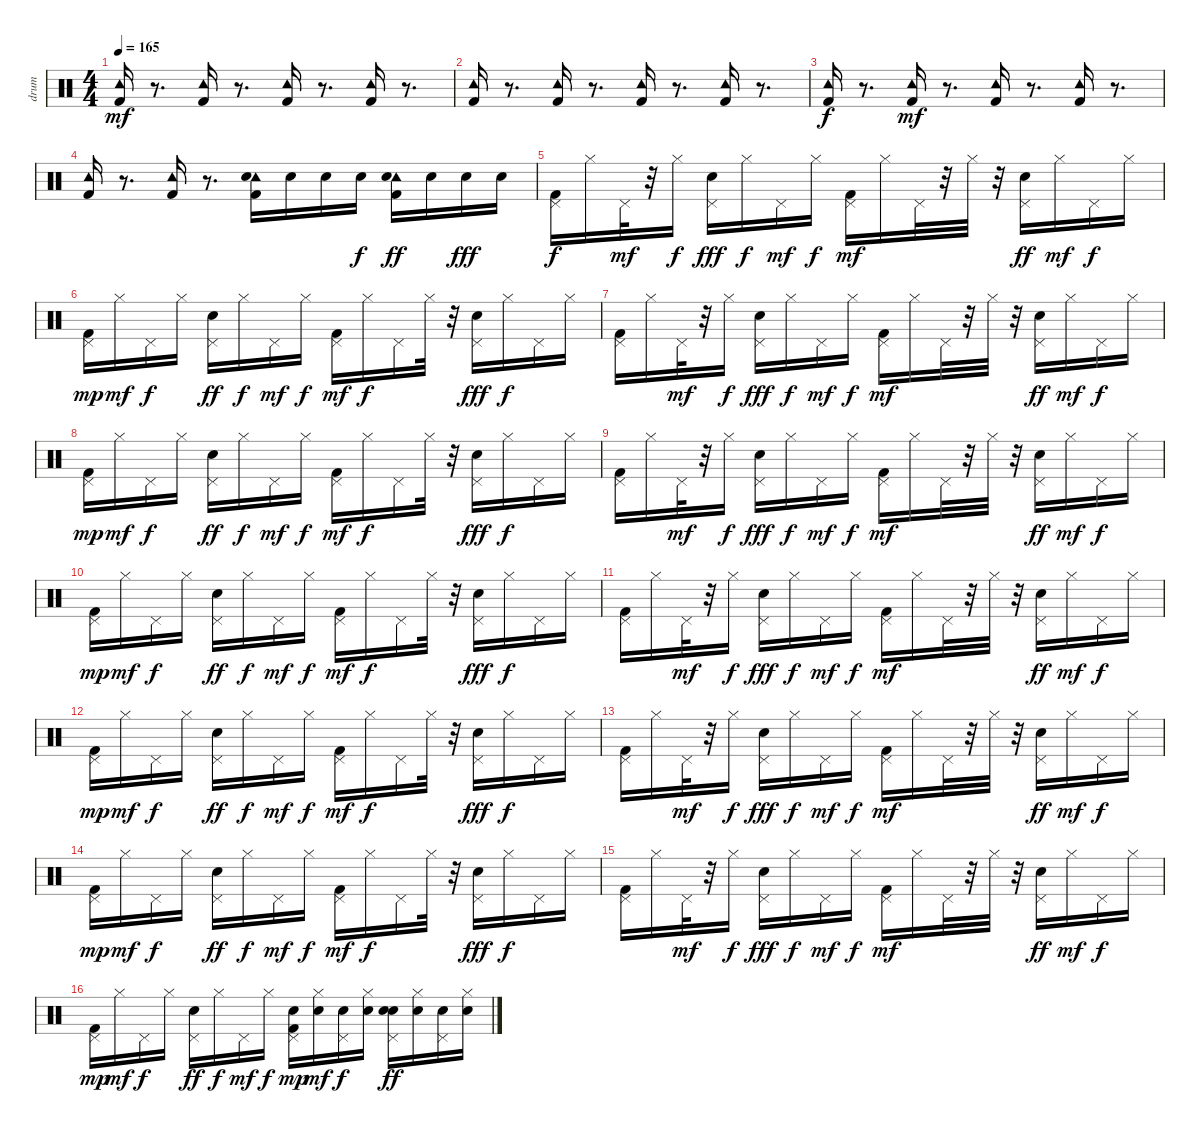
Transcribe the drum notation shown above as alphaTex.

\track ("drum" "drum") {instrument percussion}
\staff {score}
\articulation defaults
\ts (4 4)
\tempo 165
\clef neutral
\ks c
("Tambourine (hit)" "Kick (hit) 2").16{dy mf} r.8{d} ("Kick (hit) 2" "Tambourine (hit)").16 r.8{d} ("Kick (hit) 2" "Tambourine (hit)").16 r.8{d} ("Kick (hit) 2" "Tambourine (hit)").16 r.8{d} |
("Kick (hit) 2" "Tambourine (hit)").16 r.8{d} ("Kick (hit) 2" "Tambourine (hit)").16 r.8{d} ("Kick (hit) 2" "Tambourine (hit)").16 r.8{d} ("Kick (hit) 2" "Tambourine (hit)").16 r.8{d} |
("Tambourine (hit)" "Kick (hit) 2").16{dy f} r.8{d} ("Tambourine (hit)" "Kick (hit) 2").16{dy mf} r.8{d} ("Tambourine (hit)" "Kick (hit) 2").16 r.8{d} ("Kick (hit) 2" "Tambourine (hit)").16 r.8{d} |
("Kick (hit) 2" "Tambourine (hit)").16 r.8{d} ("Tambourine (hit)" "Kick (hit) 2").16 r.8{d} ("Kick (hit) 2" "Tambourine (hit)" "Electric Snare (hit)").16 "Electric Snare (hit)".16 "Electric Snare (hit)".16 "Electric Snare (hit)".16{dy f} ("Kick (hit) 2" "Tambourine (hit)" "Electric Snare (hit)").16{dy ff} "Electric Snare (hit)".16 "Electric Snare (hit)".16{dy fff} "Electric Snare (hit)".16 |
("Pedal Hi-Hat (hit)" "Kick (hit) 2").16{dy f} "Hi-Hat (closed)".16 "Pedal Hi-Hat (hit)".32{dy mf} r.32 "Hi-Hat (closed)".16{dy f} ("Pedal Hi-Hat (hit)" "Electric Snare (hit)").16{dy fff} "Hi-Hat (closed)".16{dy f} "Pedal Hi-Hat (hit)".16{dy mf} "Hi-Hat (closed)".16{dy f} ("Pedal Hi-Hat (hit)" "Kick (hit) 2").16{dy mf} "Hi-Hat (closed)".16 "Pedal Hi-Hat (hit)".32 r.32 "Hi-Hat (closed)".32 r.32 ("Pedal Hi-Hat (hit)" "Electric Snare (hit)").16{dy ff} "Hi-Hat (closed)".16{dy mf} "Pedal Hi-Hat (hit)".16{dy f} "Hi-Hat (closed)".16 |
("Pedal Hi-Hat (hit)" "Kick (hit) 2").16{dy mp} "Hi-Hat (closed)".16{dy mf} "Pedal Hi-Hat (hit)".16{dy f} "Hi-Hat (closed)".16 ("Pedal Hi-Hat (hit)" "Electric Snare (hit)").16{dy ff} "Hi-Hat (closed)".16{dy f} "Pedal Hi-Hat (hit)".16{dy mf} "Hi-Hat (closed)".16{dy f} ("Pedal Hi-Hat (hit)" "Kick (hit) 2").16{dy mf} "Hi-Hat (closed)".16{dy f} "Pedal Hi-Hat (hit)".16 "Hi-Hat (closed)".32 r.32 ("Pedal Hi-Hat (hit)" "Electric Snare (hit)").16{dy fff} "Hi-Hat (closed)".16{dy f} "Pedal Hi-Hat (hit)".16 "Hi-Hat (closed)".16 |
("Pedal Hi-Hat (hit)" "Kick (hit) 2").16 "Hi-Hat (closed)".16 "Pedal Hi-Hat (hit)".32{dy mf} r.32 "Hi-Hat (closed)".16{dy f} ("Pedal Hi-Hat (hit)" "Electric Snare (hit)").16{dy fff} "Hi-Hat (closed)".16{dy f} "Pedal Hi-Hat (hit)".16{dy mf} "Hi-Hat (closed)".16{dy f} ("Pedal Hi-Hat (hit)" "Kick (hit) 2").16{dy mf} "Hi-Hat (closed)".16 "Pedal Hi-Hat (hit)".32 r.32 "Hi-Hat (closed)".32 r.32 ("Pedal Hi-Hat (hit)" "Electric Snare (hit)").16{dy ff} "Hi-Hat (closed)".16{dy mf} "Pedal Hi-Hat (hit)".16{dy f} "Hi-Hat (closed)".16 |
("Pedal Hi-Hat (hit)" "Kick (hit) 2").16{dy mp} "Hi-Hat (closed)".16{dy mf} "Pedal Hi-Hat (hit)".16{dy f} "Hi-Hat (closed)".16 ("Pedal Hi-Hat (hit)" "Electric Snare (hit)").16{dy ff} "Hi-Hat (closed)".16{dy f} "Pedal Hi-Hat (hit)".16{dy mf} "Hi-Hat (closed)".16{dy f} ("Pedal Hi-Hat (hit)" "Kick (hit) 2").16{dy mf} "Hi-Hat (closed)".16{dy f} "Pedal Hi-Hat (hit)".16 "Hi-Hat (closed)".32 r.32 ("Pedal Hi-Hat (hit)" "Electric Snare (hit)").16{dy fff} "Hi-Hat (closed)".16{dy f} "Pedal Hi-Hat (hit)".16 "Hi-Hat (closed)".16 |
("Pedal Hi-Hat (hit)" "Kick (hit) 2").16 "Hi-Hat (closed)".16 "Pedal Hi-Hat (hit)".32{dy mf} r.32 "Hi-Hat (closed)".16{dy f} ("Pedal Hi-Hat (hit)" "Electric Snare (hit)").16{dy fff} "Hi-Hat (closed)".16{dy f} "Pedal Hi-Hat (hit)".16{dy mf} "Hi-Hat (closed)".16{dy f} ("Pedal Hi-Hat (hit)" "Kick (hit) 2").16{dy mf} "Hi-Hat (closed)".16 "Pedal Hi-Hat (hit)".32 r.32 "Hi-Hat (closed)".32 r.32 ("Pedal Hi-Hat (hit)" "Electric Snare (hit)").16{dy ff} "Hi-Hat (closed)".16{dy mf} "Pedal Hi-Hat (hit)".16{dy f} "Hi-Hat (closed)".16 |
("Pedal Hi-Hat (hit)" "Kick (hit) 2").16{dy mp} "Hi-Hat (closed)".16{dy mf} "Pedal Hi-Hat (hit)".16{dy f} "Hi-Hat (closed)".16 ("Pedal Hi-Hat (hit)" "Electric Snare (hit)").16{dy ff} "Hi-Hat (closed)".16{dy f} "Pedal Hi-Hat (hit)".16{dy mf} "Hi-Hat (closed)".16{dy f} ("Pedal Hi-Hat (hit)" "Kick (hit) 2").16{dy mf} "Hi-Hat (closed)".16{dy f} "Pedal Hi-Hat (hit)".16 "Hi-Hat (closed)".32 r.32 ("Pedal Hi-Hat (hit)" "Electric Snare (hit)").16{dy fff} "Hi-Hat (closed)".16{dy f} "Pedal Hi-Hat (hit)".16 "Hi-Hat (closed)".16 |
("Pedal Hi-Hat (hit)" "Kick (hit) 2").16 "Hi-Hat (closed)".16 "Pedal Hi-Hat (hit)".32{dy mf} r.32 "Hi-Hat (closed)".16{dy f} ("Pedal Hi-Hat (hit)" "Electric Snare (hit)").16{dy fff} "Hi-Hat (closed)".16{dy f} "Pedal Hi-Hat (hit)".16{dy mf} "Hi-Hat (closed)".16{dy f} ("Pedal Hi-Hat (hit)" "Kick (hit) 2").16{dy mf} "Hi-Hat (closed)".16 "Pedal Hi-Hat (hit)".32 r.32 "Hi-Hat (closed)".32 r.32 ("Pedal Hi-Hat (hit)" "Electric Snare (hit)").16{dy ff} "Hi-Hat (closed)".16{dy mf} "Pedal Hi-Hat (hit)".16{dy f} "Hi-Hat (closed)".16 |
("Pedal Hi-Hat (hit)" "Kick (hit) 2").16{dy mp} "Hi-Hat (closed)".16{dy mf} "Pedal Hi-Hat (hit)".16{dy f} "Hi-Hat (closed)".16 ("Pedal Hi-Hat (hit)" "Electric Snare (hit)").16{dy ff} "Hi-Hat (closed)".16{dy f} "Pedal Hi-Hat (hit)".16{dy mf} "Hi-Hat (closed)".16{dy f} ("Pedal Hi-Hat (hit)" "Kick (hit) 2").16{dy mf} "Hi-Hat (closed)".16{dy f} "Pedal Hi-Hat (hit)".16 "Hi-Hat (closed)".32 r.32 ("Pedal Hi-Hat (hit)" "Electric Snare (hit)").16{dy fff} "Hi-Hat (closed)".16{dy f} "Pedal Hi-Hat (hit)".16 "Hi-Hat (closed)".16 |
("Pedal Hi-Hat (hit)" "Kick (hit) 2").16 "Hi-Hat (closed)".16 "Pedal Hi-Hat (hit)".32{dy mf} r.32 "Hi-Hat (closed)".16{dy f} ("Pedal Hi-Hat (hit)" "Electric Snare (hit)").16{dy fff} "Hi-Hat (closed)".16{dy f} "Pedal Hi-Hat (hit)".16{dy mf} "Hi-Hat (closed)".16{dy f} ("Pedal Hi-Hat (hit)" "Kick (hit) 2").16{dy mf} "Hi-Hat (closed)".16 "Pedal Hi-Hat (hit)".32 r.32 "Hi-Hat (closed)".32 r.32 ("Pedal Hi-Hat (hit)" "Electric Snare (hit)").16{dy ff} "Hi-Hat (closed)".16{dy mf} "Pedal Hi-Hat (hit)".16{dy f} "Hi-Hat (closed)".16 |
("Pedal Hi-Hat (hit)" "Kick (hit) 2").16{dy mp} "Hi-Hat (closed)".16{dy mf} "Pedal Hi-Hat (hit)".16{dy f} "Hi-Hat (closed)".16 ("Pedal Hi-Hat (hit)" "Electric Snare (hit)").16{dy ff} "Hi-Hat (closed)".16{dy f} "Pedal Hi-Hat (hit)".16{dy mf} "Hi-Hat (closed)".16{dy f} ("Pedal Hi-Hat (hit)" "Kick (hit) 2").16{dy mf} "Hi-Hat (closed)".16{dy f} "Pedal Hi-Hat (hit)".16 "Hi-Hat (closed)".32 r.32 ("Pedal Hi-Hat (hit)" "Electric Snare (hit)").16{dy fff} "Hi-Hat (closed)".16{dy f} "Pedal Hi-Hat (hit)".16 "Hi-Hat (closed)".16 |
("Pedal Hi-Hat (hit)" "Kick (hit) 2").16 "Hi-Hat (closed)".16 "Pedal Hi-Hat (hit)".32{dy mf} r.32 "Hi-Hat (closed)".16{dy f} ("Pedal Hi-Hat (hit)" "Electric Snare (hit)").16{dy fff} "Hi-Hat (closed)".16{dy f} "Pedal Hi-Hat (hit)".16{dy mf} "Hi-Hat (closed)".16{dy f} ("Pedal Hi-Hat (hit)" "Kick (hit) 2").16{dy mf} "Hi-Hat (closed)".16 "Pedal Hi-Hat (hit)".32 r.32 "Hi-Hat (closed)".32 r.32 ("Pedal Hi-Hat (hit)" "Electric Snare (hit)").16{dy ff} "Hi-Hat (closed)".16{dy mf} "Pedal Hi-Hat (hit)".16{dy f} "Hi-Hat (closed)".16 |
("Pedal Hi-Hat (hit)" "Kick (hit) 2").16{dy mp} "Hi-Hat (closed)".16{dy mf} "Pedal Hi-Hat (hit)".16{dy f} "Hi-Hat (closed)".16 ("Pedal Hi-Hat (hit)" "Electric Snare (hit)").16{dy ff} "Hi-Hat (closed)".16{dy f} "Pedal Hi-Hat (hit)".16{dy mf} "Hi-Hat (closed)".16{dy f} ("Pedal Hi-Hat (hit)" "Kick (hit) 2" "Electric Snare (hit)").16{dy mp} ("Hi-Hat (closed)" "Electric Snare (hit)").16{dy mf} ("Pedal Hi-Hat (hit)" "Electric Snare (hit)").16{dy f} ("Hi-Hat (closed)" "Electric Snare (hit)").16 ("Pedal Hi-Hat (hit)" "Electric Snare (hit)" "Electric Snare (hit)").16{dy ff} ("Hi-Hat (closed)" "Electric Snare (hit)").16 ("Pedal Hi-Hat (hit)" "Electric Snare (hit)").16 ("Hi-Hat (closed)" "Electric Snare (hit)").16
